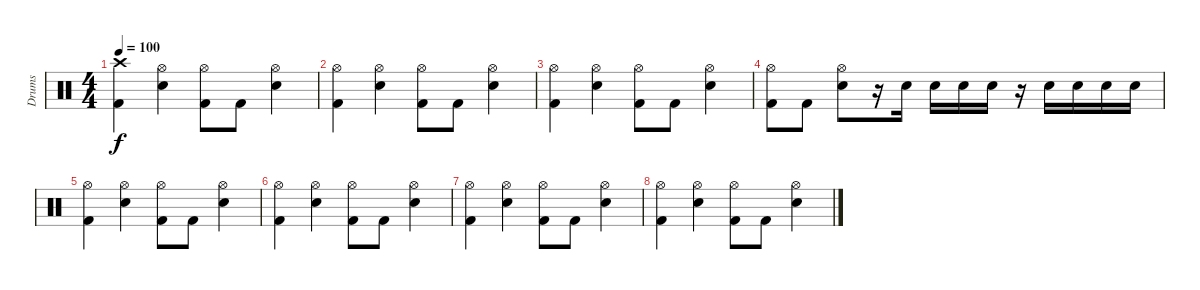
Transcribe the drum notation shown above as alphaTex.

\track ("Drums" "Drums") {instrument percussion}
\staff {score}
\articulation defaults
\ts (4 4)
\tempo 100
\clef neutral
\ks c
("Crash high (hit)" "Kick (hit) 2").4{dy f volume 6} ("Hi-Hat (open)" "Electric Snare (hit)").4 ("Hi-Hat (open)" "Kick (hit) 2").8 "Kick (hit) 2".8 ("Hi-Hat (open)" "Electric Snare (hit)").4 |
("Hi-Hat (open)" "Kick (hit) 2").4 ("Hi-Hat (open)" "Electric Snare (hit)").4 ("Hi-Hat (open)" "Kick (hit) 2").8 "Kick (hit) 2".8 ("Hi-Hat (open)" "Electric Snare (hit)").4 |
("Hi-Hat (open)" "Kick (hit) 2").4{volume 2} ("Hi-Hat (open)" "Electric Snare (hit)").4 ("Hi-Hat (open)" "Kick (hit) 2").8 "Kick (hit) 2".8 ("Hi-Hat (open)" "Electric Snare (hit)").4 |
("Hi-Hat (open)" "Kick (hit) 2").8 "Kick (hit) 2".8 ("Hi-Hat (open)" "Electric Snare (hit)").8 r.16 "Electric Snare (hit)".16 "Electric Snare (hit)".16 "Electric Snare (hit)".16 "Electric Snare (hit)".16 r.16 "Electric Snare (hit)".16 "Electric Snare (hit)".16 "Electric Snare (hit)".16 "Electric Snare (hit)".16 |
("Hi-Hat (open)" "Kick (hit) 2").4{volume 1} ("Hi-Hat (open)" "Electric Snare (hit)").4 ("Hi-Hat (open)" "Kick (hit) 2").8 "Kick (hit) 2".8 ("Hi-Hat (open)" "Electric Snare (hit)").4 |
("Hi-Hat (open)" "Kick (hit) 2").4 ("Hi-Hat (open)" "Electric Snare (hit)").4 ("Hi-Hat (open)" "Kick (hit) 2").8 "Kick (hit) 2".8 ("Hi-Hat (open)" "Electric Snare (hit)").4 |
("Hi-Hat (open)" "Kick (hit) 2").4 ("Hi-Hat (open)" "Electric Snare (hit)").4 ("Hi-Hat (open)" "Kick (hit) 2").8 "Kick (hit) 2".8 ("Hi-Hat (open)" "Electric Snare (hit)").4 |
("Hi-Hat (open)" "Kick (hit) 2").4 ("Hi-Hat (open)" "Electric Snare (hit)").4 ("Hi-Hat (open)" "Kick (hit) 2").8 "Kick (hit) 2".8 ("Hi-Hat (open)" "Electric Snare (hit)").4
